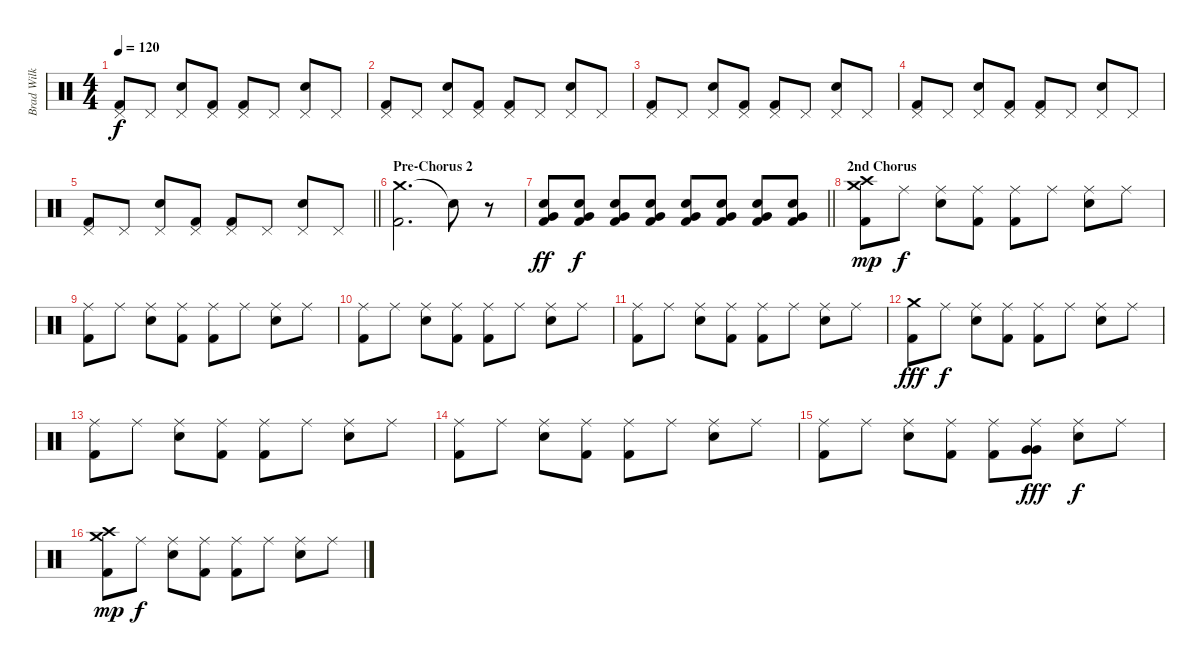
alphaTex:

\track ("Brad Wilk" "Brad Wilk") {instrument percussion}
\staff {score}
\articulation defaults
\ts (4 4)
\tempo 120
\clef neutral
\ks c
("Pedal Hi-Hat (hit)" "Kick (hit) 2").8{dy f} "Pedal Hi-Hat (hit)".8 ("Pedal Hi-Hat (hit)" "Electric Snare (hit)").8 ("Pedal Hi-Hat (hit)" "Kick (hit) 2").8 ("Pedal Hi-Hat (hit)" "Kick (hit) 2").8 "Pedal Hi-Hat (hit)".8 ("Pedal Hi-Hat (hit)" "Electric Snare (hit)").8 "Pedal Hi-Hat (hit)".8 |
("Pedal Hi-Hat (hit)" "Kick (hit) 2").8 "Pedal Hi-Hat (hit)".8 ("Pedal Hi-Hat (hit)" "Electric Snare (hit)").8 ("Pedal Hi-Hat (hit)" "Kick (hit) 2").8 ("Pedal Hi-Hat (hit)" "Kick (hit) 2").8 "Pedal Hi-Hat (hit)".8 ("Pedal Hi-Hat (hit)" "Electric Snare (hit)").8 "Pedal Hi-Hat (hit)".8 |
("Pedal Hi-Hat (hit)" "Kick (hit) 2").8 "Pedal Hi-Hat (hit)".8 ("Pedal Hi-Hat (hit)" "Electric Snare (hit)").8 ("Pedal Hi-Hat (hit)" "Kick (hit) 2").8 ("Pedal Hi-Hat (hit)" "Kick (hit) 2").8 "Pedal Hi-Hat (hit)".8 ("Pedal Hi-Hat (hit)" "Electric Snare (hit)").8 "Pedal Hi-Hat (hit)".8 |
("Pedal Hi-Hat (hit)" "Kick (hit) 2").8 "Pedal Hi-Hat (hit)".8 ("Pedal Hi-Hat (hit)" "Electric Snare (hit)").8 ("Pedal Hi-Hat (hit)" "Kick (hit) 2").8 ("Pedal Hi-Hat (hit)" "Kick (hit) 2").8 "Pedal Hi-Hat (hit)".8 ("Pedal Hi-Hat (hit)" "Electric Snare (hit)").8 "Pedal Hi-Hat (hit)".8 |
\barLineRight lightlight
("Pedal Hi-Hat (hit)" "Kick (hit) 2").8 "Pedal Hi-Hat (hit)".8 ("Pedal Hi-Hat (hit)" "Electric Snare (hit)").8 ("Pedal Hi-Hat (hit)" "Kick (hit) 2").8 ("Pedal Hi-Hat (hit)" "Kick (hit) 2").8 "Pedal Hi-Hat (hit)".8 ("Pedal Hi-Hat (hit)" "Electric Snare (hit)").8 "Pedal Hi-Hat (hit)".8 |
\section ("" "Pre-Chorus 2")
("Crash medium (hit)" "Kick (hit) 2").2{d} "Snare (hit)"{t}.8 r.8{volume 0} |
\barLineRight lightlight
("Electric Snare (hit)" "Very Low Tom (hit)" "Kick (hit) 2").8{dy ff volume 16} ("Electric Snare (hit)" "Very Low Tom (hit)" "Kick (hit) 2").8{dy f} ("Electric Snare (hit)" "Very Low Tom (hit)" "Kick (hit) 2").8 ("Electric Snare (hit)" "Very Low Tom (hit)" "Kick (hit) 2").8 ("Electric Snare (hit)" "Very Low Tom (hit)" "Kick (hit) 2").8 ("Electric Snare (hit)" "Very Low Tom (hit)" "Kick (hit) 2").8 ("Electric Snare (hit)" "Very Low Tom (hit)" "Kick (hit) 2").8 ("Electric Snare (hit)" "Very Low Tom (hit)" "Kick (hit) 2").8 |
\section ("" "2nd Chorus")
("Crash medium (hit)" "Crash high (hit)" "Kick (hit) 2").8{dy mp} "Ride (middle)".8{dy f} ("Ride (middle)" "Electric Snare (hit)").8 ("Ride (middle)" "Kick (hit) 2").8 ("Ride (middle)" "Kick (hit) 2").8 "Ride (middle)".8 ("Ride (middle)" "Electric Snare (hit)").8 "Ride (middle)".8 |
("Ride (middle)" "Kick (hit) 2").8 "Ride (middle)".8 ("Ride (middle)" "Electric Snare (hit)").8 ("Ride (middle)" "Kick (hit) 2").8 ("Ride (middle)" "Kick (hit) 2").8 "Ride (middle)".8 ("Ride (middle)" "Electric Snare (hit)").8 "Ride (middle)".8 |
("Ride (middle)" "Kick (hit) 2").8 "Ride (middle)".8 ("Ride (middle)" "Electric Snare (hit)").8 ("Ride (middle)" "Kick (hit) 2").8 ("Ride (middle)" "Kick (hit) 2").8 "Ride (middle)".8 ("Ride (middle)" "Electric Snare (hit)").8 "Ride (middle)".8 |
("Ride (middle)" "Kick (hit) 2").8 "Ride (middle)".8 ("Ride (middle)" "Electric Snare (hit)").8 ("Ride (middle)" "Kick (hit) 2").8 ("Ride (middle)" "Kick (hit) 2").8 "Ride (middle)".8 ("Ride (middle)" "Electric Snare (hit)").8 "Ride (middle)".8 |
("Crash medium (hit)" "Kick (hit) 2").8{dy fff} "Ride (middle)".8{dy f} ("Ride (middle)" "Electric Snare (hit)").8 ("Ride (middle)" "Kick (hit) 2").8 ("Ride (middle)" "Kick (hit) 2").8 "Ride (middle)".8 ("Ride (middle)" "Electric Snare (hit)").8 "Ride (middle)".8 |
("Ride (middle)" "Kick (hit) 2").8 "Ride (middle)".8 ("Ride (middle)" "Electric Snare (hit)").8 ("Ride (middle)" "Kick (hit) 2").8 ("Ride (middle)" "Kick (hit) 2").8 "Ride (middle)".8 ("Ride (middle)" "Electric Snare (hit)").8 "Ride (middle)".8 |
("Ride (middle)" "Kick (hit) 2").8 "Ride (middle)".8 ("Ride (middle)" "Electric Snare (hit)").8 ("Ride (middle)" "Kick (hit) 2").8 ("Ride (middle)" "Kick (hit) 2").8 "Ride (middle)".8 ("Ride (middle)" "Electric Snare (hit)").8 "Ride (middle)".8 |
("Ride (middle)" "Kick (hit) 2").8 "Ride (middle)".8 ("Ride (middle)" "Electric Snare (hit)").8 ("Ride (middle)" "Kick (hit) 2").8 ("Ride (middle)" "Kick (hit) 2").8 ("Ride (middle)" "Very Low Tom (hit)" "Very Low Tom (hit)").8{dy fff} ("Ride (middle)" "Electric Snare (hit)").8{dy f} "Ride (middle)".8 |
("Crash medium (hit)" "Crash high (hit)" "Kick (hit) 2").8{dy mp} "Ride (middle)".8{dy f} ("Ride (middle)" "Electric Snare (hit)").8 ("Ride (middle)" "Kick (hit) 2").8 ("Ride (middle)" "Kick (hit) 2").8 "Ride (middle)".8 ("Ride (middle)" "Electric Snare (hit)").8 "Ride (middle)".8
